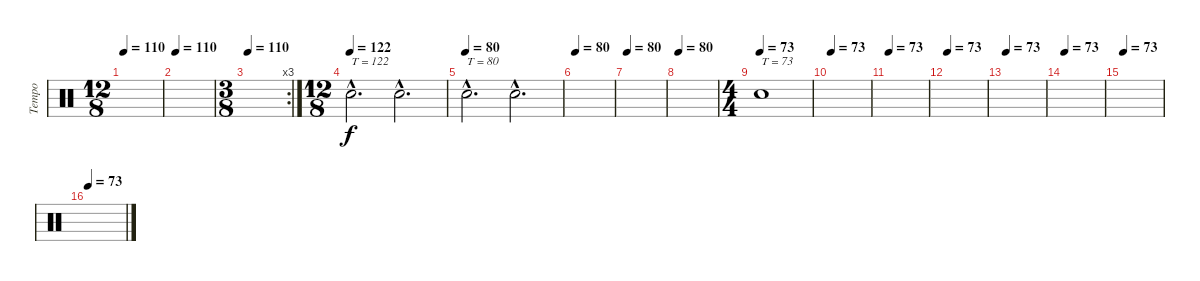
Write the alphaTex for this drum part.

\track ("Tempo" "Tempo") {instrument percussion}
\staff {score}
\articulation defaults
\ts (12 8)
\tempo 110
\clef neutral
\ks c
|
\tempo 110
|
\rc 3
\ts (3 8)
\tempo 110
|
\ts (12 8)
\tempo (122)
"Snare (hit)"{hac x}.2{d txt "T = 122"} "Snare (hit)"{hac x}.2{d} |
\tempo (80)
"Snare (hit)"{hac x}.2{d txt "T = 80"} "Snare (hit)"{hac x}.2{d} |
\tempo 80
|
\tempo 80
|
\tempo 80
|
\ts (4 4)
\tempo (73)
"Snare (hit)"{x}.1{txt "T = 73"} |
\tempo 73
|
\tempo 73
|
\tempo 73
|
\tempo 73
|
\tempo 73
|
\tempo 73
|
\tempo 73
